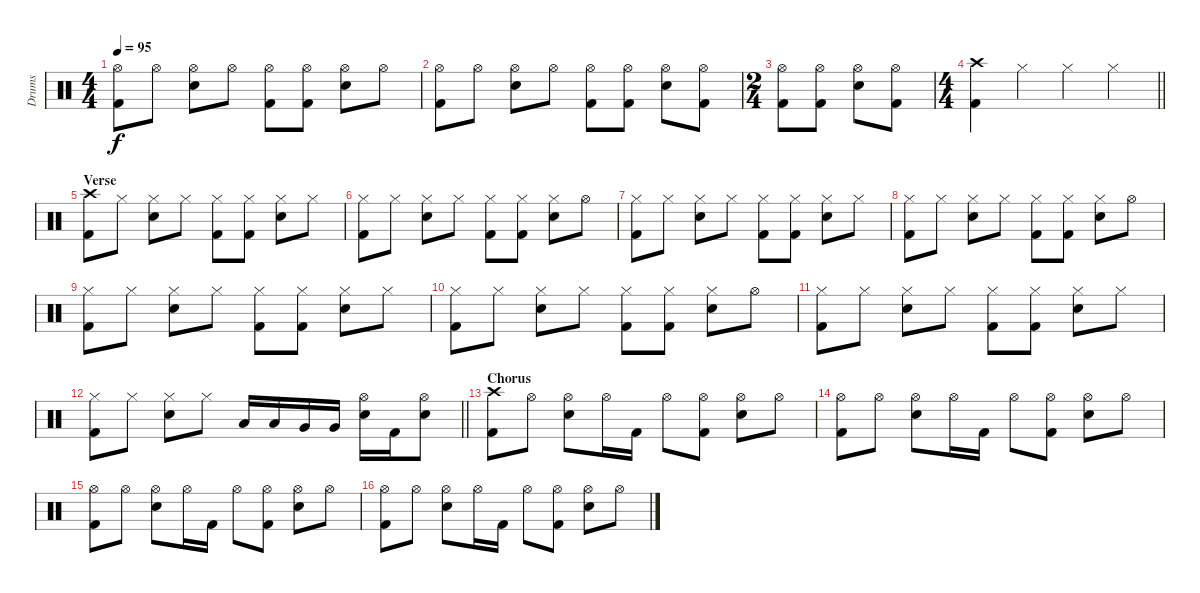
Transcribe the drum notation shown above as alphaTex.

\track ("Drums" "Drums") {instrument percussion}
\staff {score}
\articulation defaults
\ts (4 4)
\tempo 95
\clef neutral
\ks c
("Hi-Hat (open)" "Kick (hit) 2").8{dy f} "Hi-Hat (open)".8 ("Hi-Hat (open)" "Electric Snare (hit)").8 "Hi-Hat (open)".8 ("Hi-Hat (open)" "Kick (hit) 2").8 ("Hi-Hat (open)" "Kick (hit) 2").8 ("Hi-Hat (open)" "Electric Snare (hit)").8 "Hi-Hat (open)".8 |
("Hi-Hat (open)" "Kick (hit) 2").8 "Hi-Hat (open)".8 ("Hi-Hat (open)" "Electric Snare (hit)").8 "Hi-Hat (open)".8 ("Hi-Hat (open)" "Kick (hit) 2").8 ("Hi-Hat (open)" "Kick (hit) 2").8 ("Hi-Hat (open)" "Electric Snare (hit)").8 ("Hi-Hat (open)" "Kick (hit) 2").8 |
\ts (2 4)
("Hi-Hat (open)" "Kick (hit) 2").8 ("Hi-Hat (open)" "Kick (hit) 2").8 ("Hi-Hat (open)" "Electric Snare (hit)").8 ("Hi-Hat (open)" "Kick (hit) 2").8 |
\ts (4 4)
\barLineRight lightlight
("Crash high (hit)" "Kick (hit) 2").4 "Hi-Hat (closed)".4 "Hi-Hat (closed)".4 "Hi-Hat (closed)".4 |
\section ("" "Verse")
("Crash high (hit)" "Kick (hit) 2").8 "Hi-Hat (closed)".8 ("Hi-Hat (closed)" "Electric Snare (hit)").8 "Hi-Hat (closed)".8 ("Hi-Hat (closed)" "Kick (hit) 2").8 ("Hi-Hat (closed)" "Kick (hit) 2").8 ("Hi-Hat (closed)" "Electric Snare (hit)").8 "Hi-Hat (closed)".8 |
("Hi-Hat (closed)" "Kick (hit) 2").8 "Hi-Hat (closed)".8 ("Hi-Hat (closed)" "Electric Snare (hit)").8 "Hi-Hat (closed)".8 ("Hi-Hat (closed)" "Kick (hit) 2").8 ("Hi-Hat (closed)" "Kick (hit) 2").8 ("Hi-Hat (closed)" "Electric Snare (hit)").8 "Hi-Hat (open)".8{txt ""} |
("Hi-Hat (closed)" "Kick (hit) 2").8 "Hi-Hat (closed)".8 ("Hi-Hat (closed)" "Electric Snare (hit)").8 "Hi-Hat (closed)".8 ("Hi-Hat (closed)" "Kick (hit) 2").8 ("Hi-Hat (closed)" "Kick (hit) 2").8 ("Hi-Hat (closed)" "Electric Snare (hit)").8 "Hi-Hat (closed)".8 |
("Hi-Hat (closed)" "Kick (hit) 2").8 "Hi-Hat (closed)".8 ("Hi-Hat (closed)" "Electric Snare (hit)").8 "Hi-Hat (closed)".8 ("Hi-Hat (closed)" "Kick (hit) 2").8 ("Hi-Hat (closed)" "Kick (hit) 2").8 ("Hi-Hat (closed)" "Electric Snare (hit)").8 "Hi-Hat (open)".8 |
("Hi-Hat (closed)" "Kick (hit) 2").8 "Hi-Hat (closed)".8 ("Hi-Hat (closed)" "Electric Snare (hit)").8 "Hi-Hat (closed)".8 ("Hi-Hat (closed)" "Kick (hit) 2").8 ("Hi-Hat (closed)" "Kick (hit) 2").8 ("Hi-Hat (closed)" "Electric Snare (hit)").8 "Hi-Hat (closed)".8 |
("Hi-Hat (closed)" "Kick (hit) 2").8 "Hi-Hat (closed)".8 ("Hi-Hat (closed)" "Electric Snare (hit)").8 "Hi-Hat (closed)".8 ("Hi-Hat (closed)" "Kick (hit) 2").8 ("Hi-Hat (closed)" "Kick (hit) 2").8 ("Hi-Hat (closed)" "Electric Snare (hit)").8 "Hi-Hat (open)".8 |
("Hi-Hat (closed)" "Kick (hit) 2").8 "Hi-Hat (closed)".8 ("Hi-Hat (closed)" "Electric Snare (hit)").8 "Hi-Hat (closed)".8 ("Hi-Hat (closed)" "Kick (hit) 2").8 ("Hi-Hat (closed)" "Kick (hit) 2").8 ("Hi-Hat (closed)" "Electric Snare (hit)").8 "Hi-Hat (closed)".8 |
\barLineRight lightlight
("Hi-Hat (closed)" "Kick (hit) 2").8 "Hi-Hat (closed)".8 ("Hi-Hat (closed)" "Electric Snare (hit)").8 "Hi-Hat (closed)".8 "Low Tom (hit)".16 "Low Tom (hit)".16 "Very Low Tom (hit)".16 "Very Low Tom (hit)".16 ("Hi-Hat (open)" "Electric Snare (hit)").16 "Kick (hit) 2".16 ("Hi-Hat (open)" "Electric Snare (hit)").8 |
\section ("" "Chorus")
("Crash high (hit)" "Kick (hit) 2").8 "Hi-Hat (open)".8 ("Hi-Hat (open)" "Electric Snare (hit)").8 "Hi-Hat (open)".16 "Kick (hit) 2".16 "Hi-Hat (open)".8 ("Hi-Hat (open)" "Kick (hit) 2").8 ("Hi-Hat (open)" "Electric Snare (hit)").8 "Hi-Hat (open)".8 |
("Hi-Hat (open)" "Kick (hit) 2").8 "Hi-Hat (open)".8 ("Hi-Hat (open)" "Electric Snare (hit)").8 "Hi-Hat (open)".16 "Kick (hit) 2".16 "Hi-Hat (open)".8 ("Hi-Hat (open)" "Kick (hit) 2").8 ("Hi-Hat (open)" "Electric Snare (hit)").8 "Hi-Hat (open)".8 |
("Hi-Hat (open)" "Kick (hit) 2").8 "Hi-Hat (open)".8 ("Hi-Hat (open)" "Electric Snare (hit)").8 "Hi-Hat (open)".16 "Kick (hit) 2".16 "Hi-Hat (open)".8 ("Hi-Hat (open)" "Kick (hit) 2").8 ("Hi-Hat (open)" "Electric Snare (hit)").8 "Hi-Hat (open)".8 |
("Hi-Hat (open)" "Kick (hit) 2").8 "Hi-Hat (open)".8 ("Hi-Hat (open)" "Electric Snare (hit)").8 "Hi-Hat (open)".16 "Kick (hit) 2".16 "Hi-Hat (open)".8 ("Hi-Hat (open)" "Kick (hit) 2").8 ("Hi-Hat (open)" "Electric Snare (hit)").8 "Hi-Hat (open)".8
